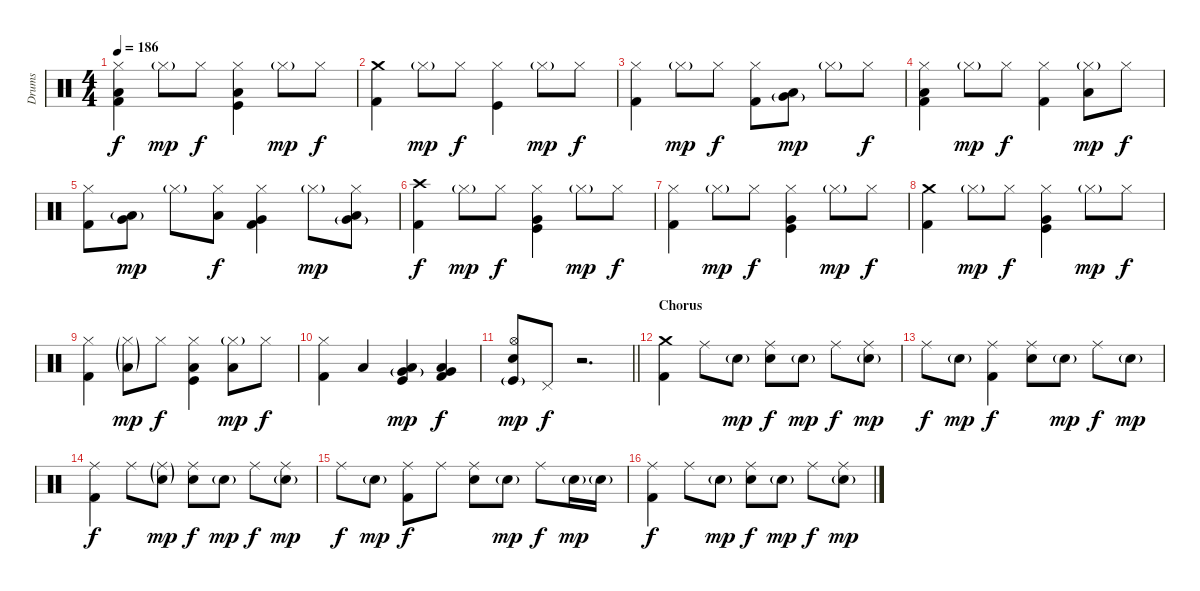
\track ("Drums" "Drums") {instrument percussion}
\staff {score}
\articulation defaults
\ts (4 4)
\tempo 186
\clef neutral
\ks c
("Hi-Hat (closed)" "Low Floor Tom (hit)" "Kick (hit) 2").4{dy f} "Hi-Hat (closed)"{g}.8{dy mp} "Hi-Hat (closed)".8{dy f} ("Hi-Hat (closed)" "Low Floor Tom (hit)" "Kick (hit)").4 "Hi-Hat (closed)"{g}.8{dy mp} "Hi-Hat (closed)".8{dy f} |
("Crash medium (hit)" "Kick (hit) 2").4 "Hi-Hat (closed)"{g}.8{dy mp} "Hi-Hat (closed)".8{dy f} ("Hi-Hat (closed)" "Kick (hit)").4 "Hi-Hat (closed)"{g}.8{dy mp} "Hi-Hat (closed)".8{dy f} |
("Hi-Hat (closed)" "Kick (hit) 2").4 "Hi-Hat (closed)"{g}.8{dy mp} "Hi-Hat (closed)".8{dy f} ("Hi-Hat (closed)" "Kick (hit) 2").8 ("Very Low Tom (hit)"{g} "Low Tom (hit)").8{dy mp} "Hi-Hat (closed)"{g}.8 "Hi-Hat (closed)".8{dy f} |
("Hi-Hat (closed)" "Low Floor Tom (hit)" "Kick (hit) 2").4 "Hi-Hat (closed)"{g}.8{dy mp} "Hi-Hat (closed)".8{dy f} ("Hi-Hat (closed)" "Kick (hit) 2").4 ("Hi-Hat (closed)"{g} "Low Floor Tom (hit)").8{dy mp} "Hi-Hat (closed)".8{dy f} |
("Hi-Hat (closed)" "Kick (hit) 2").8 ("Very Low Tom (hit)" "Low Floor Tom (hit)"{g}).8{dy mp} "Hi-Hat (closed)"{g}.8 ("Hi-Hat (closed)" "Low Floor Tom (hit)").8{dy f} ("Hi-Hat (closed)" "Very Low Tom (hit)" "Kick (hit) 2").4 "Hi-Hat (closed)"{g}.8{dy mp} ("Hi-Hat (closed)" "Very Low Tom (hit)"{g} "Low Floor Tom (hit)").8 |
("Crash high (hit)" "Kick (hit) 2").4{dy f} "Hi-Hat (closed)"{g}.8{dy mp} "Hi-Hat (closed)".8{dy f} ("Hi-Hat (closed)" "Very Low Tom (hit)" "Kick (hit)").4 "Hi-Hat (closed)"{g}.8{dy mp} "Hi-Hat (closed)".8{dy f} |
("Hi-Hat (closed)" "Kick (hit) 2").4 "Hi-Hat (closed)"{g}.8{dy mp} "Hi-Hat (closed)".8{dy f} ("Hi-Hat (closed)" "Very Low Tom (hit)" "Kick (hit)").4 "Hi-Hat (closed)"{g}.8{dy mp} "Hi-Hat (closed)".8{dy f} |
("Crash medium (hit)" "Kick (hit) 2").4 "Hi-Hat (closed)"{g}.8{dy mp} "Hi-Hat (closed)".8{dy f} ("Hi-Hat (closed)" "Very Low Tom (hit)" "Kick (hit)").4 "Hi-Hat (closed)"{g}.8{dy mp} "Hi-Hat (closed)".8{dy f} |
("Hi-Hat (closed)" "Kick (hit) 2").4 ("Hi-Hat (closed)"{g} "Low Floor Tom (hit)"{g}).8{dy mp} "Hi-Hat (closed)".8{dy f} ("Hi-Hat (closed)" "Low Floor Tom (hit)" "Kick (hit)").4 ("Hi-Hat (closed)"{g} "Low Floor Tom (hit)").8{dy mp} "Hi-Hat (closed)".8{dy f} |
("Hi-Hat (closed)" "Kick (hit) 2").4 "Low Floor Tom (hit)".4 ("Very Low Tom (hit)"{g} "Low Floor Tom (hit)" "Kick (hit)").4{dy mp} ("Very Low Tom (hit)" "Low Floor Tom (hit)" "Kick (hit) 2").4{dy f} |
\barLineRight lightlight
("Hi-Hat (open)" "Electric Snare (hit)" "Kick (hit)"{g}).8{dy mp} "Pedal Hi-Hat (hit)".8{dy f} r.2{d} |
\section ("" "Chorus")
("Crash medium (hit)" "Kick (hit) 2").4 "Ride (middle)".8 "Electric Snare (hit)"{g}.8{dy mp} ("Ride (middle)" "Electric Snare (hit)").8{dy f} "Electric Snare (hit)"{g}.8{dy mp} "Ride (middle)".8{dy f} ("Ride (middle)" "Electric Snare (hit)"{g}).8{dy mp} |
"Ride (middle)".8{dy f} "Electric Snare (hit)"{g}.8{dy mp} ("Ride (middle)" "Kick (hit) 2").4{dy f} ("Ride (middle)" "Electric Snare (hit)").8 "Electric Snare (hit)"{g}.8{dy mp} "Ride (middle)".8{dy f} "Electric Snare (hit)"{g}.8{dy mp} |
("Ride (middle)" "Kick (hit) 2").4{dy f} "Ride (middle)".8 ("Ride (middle)"{g} "Electric Snare (hit)"{g}).8{dy mp} ("Ride (middle)" "Electric Snare (hit)").8{dy f} "Electric Snare (hit)"{g}.8{dy mp} "Ride (middle)".8{dy f} ("Ride (middle)" "Electric Snare (hit)"{g}).8{dy mp} |
"Ride (middle)".8{dy f} "Electric Snare (hit)"{g}.8{dy mp} ("Ride (middle)" "Kick (hit) 2").8{dy f} "Ride (middle)".8 ("Ride (middle)" "Electric Snare (hit)").8 "Electric Snare (hit)"{g}.8{dy mp} "Ride (middle)".8{dy f} "Electric Snare (hit)"{g}.16{dy mp} "Electric Snare (hit)"{g}.16 |
("Ride (middle)" "Kick (hit) 2").4{dy f} "Ride (middle)".8 "Electric Snare (hit)"{g}.8{dy mp} ("Ride (middle)" "Electric Snare (hit)").8{dy f} "Electric Snare (hit)"{g}.8{dy mp} "Ride (middle)".8{dy f} ("Ride (middle)" "Electric Snare (hit)"{g}).8{dy mp}
